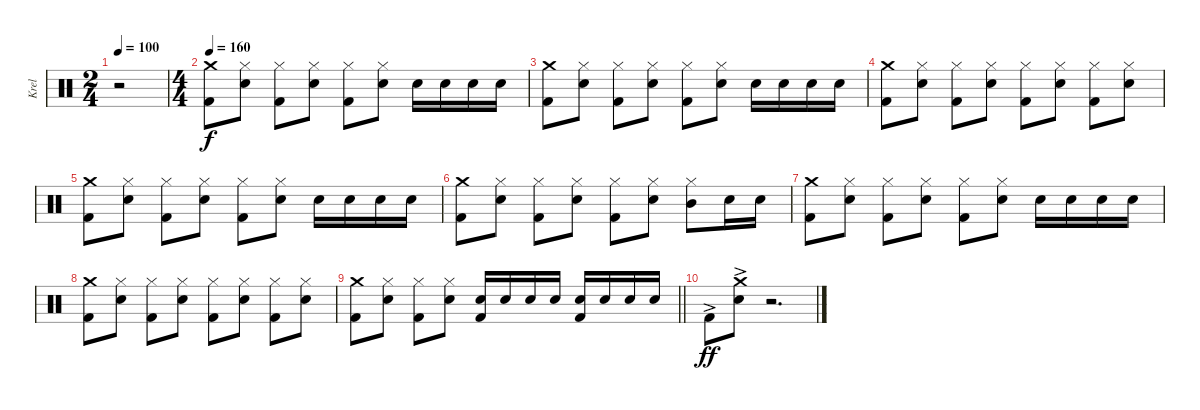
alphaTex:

\track ("Krel" "Krel") {instrument percussion}
\staff {score}
\articulation defaults
\ts (2 4)
\tempo 100
\clef neutral
\ks c
r.2{dy f} |
\ts (4 4)
\tempo 160
("Crash medium (hit)" "Kick (hit) 2").8 ("Hi-Hat (closed)" "Snare (hit) 2").8 ("Hi-Hat (closed)" "Kick (hit) 2").8 ("Hi-Hat (closed)" "Snare (hit) 2").8 ("Hi-Hat (closed)" "Kick (hit) 2").8 ("Hi-Hat (closed)" "Snare (hit) 2").8 "Snare (hit) 2".16 "Snare (hit) 2".16 "Snare (hit) 2".16 "Snare (hit) 2".16 |
("Crash medium (hit)" "Kick (hit) 2").8 ("Hi-Hat (closed)" "Snare (hit) 2").8 ("Hi-Hat (closed)" "Kick (hit) 2").8 ("Hi-Hat (closed)" "Snare (hit) 2").8 ("Hi-Hat (closed)" "Kick (hit) 2").8 ("Hi-Hat (closed)" "Snare (hit) 2").8 "Snare (hit) 2".16 "Snare (hit) 2".16 "Snare (hit) 2".16 "Snare (hit) 2".16 |
("Crash medium (hit)" "Kick (hit) 2").8 ("Hi-Hat (closed)" "Snare (hit) 2").8 ("Hi-Hat (closed)" "Kick (hit) 2").8 ("Hi-Hat (closed)" "Snare (hit) 2").8 ("Hi-Hat (closed)" "Kick (hit) 2").8 ("Hi-Hat (closed)" "Snare (hit) 2").8 ("Hi-Hat (closed)" "Kick (hit) 2").8 ("Hi-Hat (closed)" "Snare (hit) 2").8 |
("Crash medium (hit)" "Kick (hit) 2").8 ("Hi-Hat (closed)" "Snare (hit) 2").8 ("Hi-Hat (closed)" "Kick (hit) 2").8 ("Hi-Hat (closed)" "Snare (hit) 2").8 ("Hi-Hat (closed)" "Kick (hit) 2").8 ("Hi-Hat (closed)" "Snare (hit) 2").8 "Snare (hit) 2".16 "Snare (hit) 2".16 "Snare (hit) 2".16 "Snare (hit) 2".16 |
("Crash medium (hit)" "Kick (hit) 2").8 ("Hi-Hat (closed)" "Snare (hit) 2").8 ("Hi-Hat (closed)" "Kick (hit) 2").8 ("Hi-Hat (closed)" "Snare (hit) 2").8 ("Hi-Hat (closed)" "Kick (hit) 2").8 ("Hi-Hat (closed)" "Snare (hit) 2").8 ("Hi-Hat (closed)" "Mid Tom (hit)").8 "Snare (hit) 2".16 "Snare (hit) 2".16 |
("Crash medium (hit)" "Kick (hit) 2").8 ("Hi-Hat (closed)" "Snare (hit) 2").8 ("Hi-Hat (closed)" "Kick (hit) 2").8 ("Hi-Hat (closed)" "Snare (hit) 2").8 ("Hi-Hat (closed)" "Kick (hit) 2").8 ("Hi-Hat (closed)" "Snare (hit) 2").8 "Snare (hit) 2".16 "Snare (hit) 2".16 "Snare (hit) 2".16 "Snare (hit) 2".16 |
("Crash medium (hit)" "Kick (hit) 2").8 ("Hi-Hat (closed)" "Snare (hit) 2").8 ("Hi-Hat (closed)" "Kick (hit) 2").8 ("Hi-Hat (closed)" "Snare (hit) 2").8 ("Hi-Hat (closed)" "Kick (hit) 2").8 ("Hi-Hat (closed)" "Snare (hit) 2").8 ("Hi-Hat (closed)" "Kick (hit) 2").8 ("Hi-Hat (closed)" "Snare (hit) 2").8 |
\barLineRight lightlight
("Crash medium (hit)" "Kick (hit) 2").8 ("Hi-Hat (closed)" "Snare (hit) 2").8 ("Hi-Hat (closed)" "Kick (hit) 2").8 ("Hi-Hat (closed)" "Snare (hit) 2").8 ("Snare (hit) 2" "Kick (hit) 2").16 "Snare (hit) 2".16 "Snare (hit) 2".16 "Snare (hit) 2".16 ("Snare (hit) 2" "Kick (hit) 2").16 "Snare (hit) 2".16 "Snare (hit) 2".16 "Snare (hit) 2".16 |
"Kick (hit) 2"{ac}.8{dy ff} ("Crash medium (hit)"{ac} "Snare (hit) 2"{ac}).8 r.2{d}
